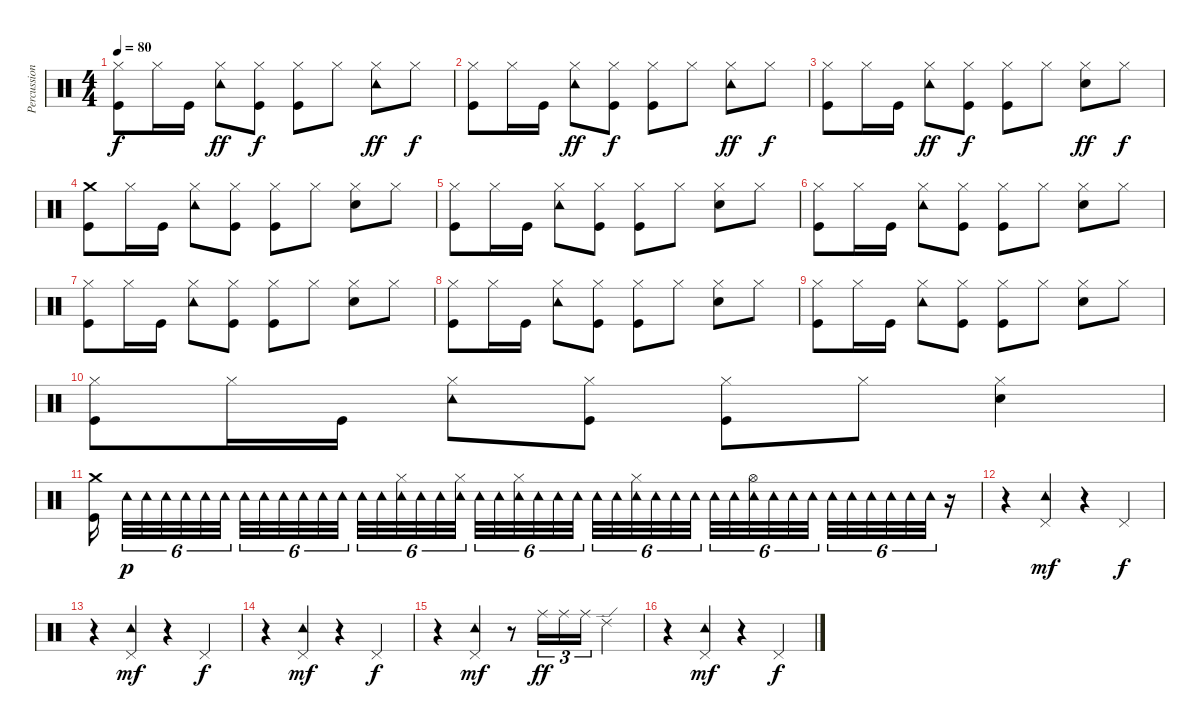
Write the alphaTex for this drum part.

\track ("Percussion" "Percussion") {instrument percussion}
\staff {score}
\articulation defaults
\ts (4 4)
\tempo 80
\clef neutral
\ks c
("Hi-Hat (closed)" "Kick (hit)").8{dy f} "Hi-Hat (closed)".16 "Kick (hit)".16 ("Tambourine (hit)" "Hi-Hat (closed)").8{dy ff} ("Hi-Hat (closed)" "Kick (hit)").8{dy f} ("Hi-Hat (closed)" "Kick (hit)").8 "Hi-Hat (closed)".8 ("Tambourine (hit)" "Hi-Hat (closed)").8{dy ff} "Hi-Hat (closed)".8{dy f} |
("Hi-Hat (closed)" "Kick (hit)").8 "Hi-Hat (closed)".16 "Kick (hit)".16 ("Tambourine (hit)" "Hi-Hat (closed)").8{dy ff} ("Hi-Hat (closed)" "Kick (hit)").8{dy f} ("Hi-Hat (closed)" "Kick (hit)").8 "Hi-Hat (closed)".8 ("Tambourine (hit)" "Hi-Hat (closed)").8{dy ff} "Hi-Hat (closed)".8{dy f} |
("Hi-Hat (closed)" "Kick (hit)").8 "Hi-Hat (closed)".16 "Kick (hit)".16 ("Tambourine (hit)" "Hi-Hat (closed)").8{dy ff} ("Hi-Hat (closed)" "Kick (hit)").8{dy f} ("Hi-Hat (closed)" "Kick (hit)").8 "Hi-Hat (closed)".8 ("Electric Snare (hit)" "Hi-Hat (closed)").8{dy ff} "Hi-Hat (closed)".8{dy f} |
("Crash medium (hit)" "Kick (hit)").8 "Hi-Hat (closed)".16 "Kick (hit)".16 ("Tambourine (hit)" "Hi-Hat (closed)").8 ("Hi-Hat (closed)" "Kick (hit)").8 ("Hi-Hat (closed)" "Kick (hit)").8 "Hi-Hat (closed)".8 ("Electric Snare (hit)" "Hi-Hat (closed)").8 "Hi-Hat (closed)".8 |
("Hi-Hat (closed)" "Kick (hit)").8 "Hi-Hat (closed)".16 "Kick (hit)".16 ("Tambourine (hit)" "Hi-Hat (closed)").8 ("Hi-Hat (closed)" "Kick (hit)").8 ("Hi-Hat (closed)" "Kick (hit)").8 "Hi-Hat (closed)".8 ("Electric Snare (hit)" "Hi-Hat (closed)").8 "Hi-Hat (closed)".8 |
("Hi-Hat (closed)" "Kick (hit)").8 "Hi-Hat (closed)".16 "Kick (hit)".16 ("Tambourine (hit)" "Hi-Hat (closed)").8 ("Hi-Hat (closed)" "Kick (hit)").8 ("Hi-Hat (closed)" "Kick (hit)").8 "Hi-Hat (closed)".8 ("Electric Snare (hit)" "Hi-Hat (closed)").8 "Hi-Hat (closed)".8 |
("Hi-Hat (closed)" "Kick (hit)").8 "Hi-Hat (closed)".16 "Kick (hit)".16 ("Tambourine (hit)" "Hi-Hat (closed)").8 ("Hi-Hat (closed)" "Kick (hit)").8 ("Hi-Hat (closed)" "Kick (hit)").8 "Hi-Hat (closed)".8 ("Electric Snare (hit)" "Hi-Hat (closed)").8 "Hi-Hat (closed)".8 |
("Hi-Hat (closed)" "Kick (hit)").8 "Hi-Hat (closed)".16 "Kick (hit)".16 ("Tambourine (hit)" "Hi-Hat (closed)").8 ("Hi-Hat (closed)" "Kick (hit)").8 ("Hi-Hat (closed)" "Kick (hit)").8 "Hi-Hat (closed)".8 ("Electric Snare (hit)" "Hi-Hat (closed)").8 "Hi-Hat (closed)".8 |
("Hi-Hat (closed)" "Kick (hit)").8 "Hi-Hat (closed)".16 "Kick (hit)".16 ("Tambourine (hit)" "Hi-Hat (closed)").8 ("Hi-Hat (closed)" "Kick (hit)").8 ("Hi-Hat (closed)" "Kick (hit)").8 "Hi-Hat (closed)".8 ("Electric Snare (hit)" "Hi-Hat (closed)").8 "Hi-Hat (closed)".8 |
("Hi-Hat (closed)" "Kick (hit)").8 "Hi-Hat (closed)".16 "Kick (hit)".16 ("Tambourine (hit)" "Hi-Hat (closed)").8 ("Hi-Hat (closed)" "Kick (hit)").8 ("Hi-Hat (closed)" "Kick (hit)").8 "Hi-Hat (closed)".8 ("Electric Snare (hit)" "Hi-Hat (closed)").4 |
("Crash medium (hit)" "Kick (hit)").16 "Tambourine (hit)".32{tu (6 4) dy p} "Tambourine (hit)".32{tu (6 4)} "Tambourine (hit)".32{tu (6 4)} "Tambourine (hit)".32{tu (6 4)} "Tambourine (hit)".32{tu (6 4)} "Tambourine (hit)".32{tu (6 4)} "Tambourine (hit)".32{tu (6 4)} "Tambourine (hit)".32{tu (6 4)} "Tambourine (hit)".32{tu (6 4)} "Tambourine (hit)".32{tu (6 4)} "Tambourine (hit)".32{tu (6 4)} "Tambourine (hit)".32{tu (6 4)} "Tambourine (hit)".32{tu (6 4)} "Tambourine (hit)".32{tu (6 4)} ("Hi-Hat (closed)" "Tambourine (hit)").32{tu (6 4)} "Tambourine (hit)".32{tu (6 4)} "Tambourine (hit)".32{tu (6 4)} ("Hi-Hat (closed)" "Tambourine (hit)").32{tu (6 4)} "Tambourine (hit)".32{tu (6 4)} "Tambourine (hit)".32{tu (6 4)} ("Hi-Hat (closed)" "Tambourine (hit)").32{tu (6 4)} "Tambourine (hit)".32{tu (6 4)} "Tambourine (hit)".32{tu (6 4)} "Tambourine (hit)".32{tu (6 4)} "Tambourine (hit)".32{tu (6 4)} "Tambourine (hit)".32{tu (6 4)} ("Hi-Hat (closed)" "Tambourine (hit)").32{tu (6 4)} "Tambourine (hit)".32{tu (6 4)} "Tambourine (hit)".32{tu (6 4)} "Tambourine (hit)".32{tu (6 4)} "Tambourine (hit)".32{tu (6 4)} "Tambourine (hit)".32{tu (6 4)} ("Hi-Hat (open)" "Tambourine (hit)").32{tu (6 4)} "Tambourine (hit)".32{tu (6 4)} "Tambourine (hit)".32{tu (6 4)} "Tambourine (hit)".32{tu (6 4)} "Tambourine (hit)".32{tu (6 4)} "Tambourine (hit)".32{tu (6 4)} "Tambourine (hit)".32{tu (6 4)} "Tambourine (hit)".32{tu (6 4)} "Tambourine (hit)".32{tu (6 4)} "Tambourine (hit)".32{tu (6 4)} r.16 |
r.4 ("Tambourine (hit)" "Pedal Hi-Hat (hit)").4{dy mf} r.4 "Pedal Hi-Hat (hit)".4{dy f} |
r.4 ("Tambourine (hit)" "Pedal Hi-Hat (hit)").4{dy mf} r.4 "Pedal Hi-Hat (hit)".4{dy f} |
r.4 ("Tambourine (hit)" "Pedal Hi-Hat (hit)").4{dy mf} r.4 "Pedal Hi-Hat (hit)".4{dy f} |
r.4 ("Tambourine (hit)" "Pedal Hi-Hat (hit)").4{dy mf} r.8 "Ride (middle)".16{tu (3 2) dy ff} "Ride (middle)".16{tu (3 2)} "Ride (middle)".16{tu (3 2)} "Ride (edge) 2".4 |
r.4 ("Tambourine (hit)" "Pedal Hi-Hat (hit)").4{dy mf} r.4 "Pedal Hi-Hat (hit)".4{dy f}
